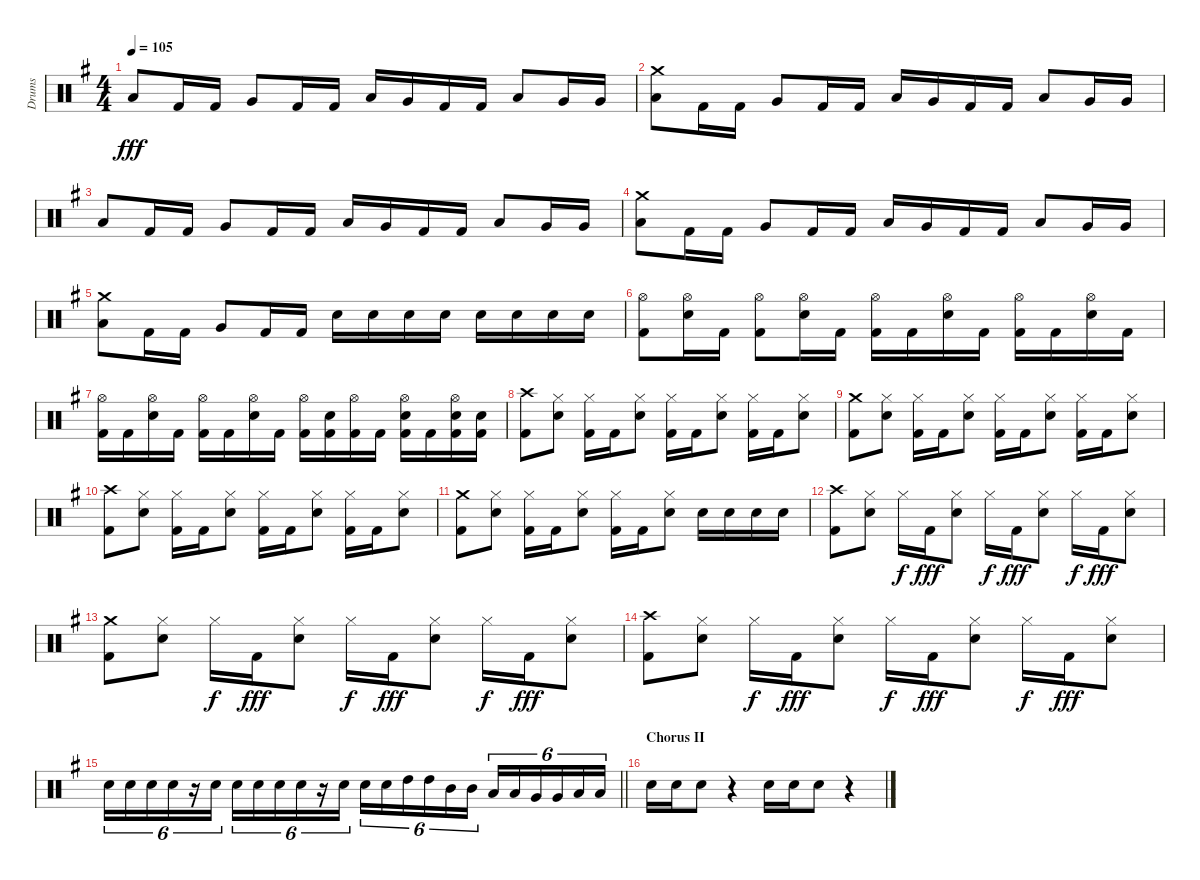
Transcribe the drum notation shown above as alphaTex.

\track ("Drums" "Drums") {instrument percussion}
\staff {score}
\articulation defaults
\ts (4 4)
\tempo 105
\clef neutral
\ks eminor "Low Tom (hit)".8{dy fff} "Kick (hit) 2".16 "Kick (hit) 2".16 "Very Low Tom (hit)".8 "Kick (hit) 2".16 "Kick (hit) 2".16 "Low Tom (hit)".16 "Very Low Tom (hit)".16 "Kick (hit) 2".16 "Kick (hit) 2".16 "Low Tom (hit)".8 "Very Low Tom (hit)".16 "Very Low Tom (hit)".16
|
("Crash medium (hit)" "Low Tom (hit)").8 "Kick (hit) 2".16 "Kick (hit) 2".16 "Very Low Tom (hit)".8 "Kick (hit) 2".16 "Kick (hit) 2".16 "Low Tom (hit)".16 "Very Low Tom (hit)".16 "Kick (hit) 2".16 "Kick (hit) 2".16 "Low Tom (hit)".8 "Very Low Tom (hit)".16 "Very Low Tom (hit)".16 |
"Low Tom (hit)".8 "Kick (hit) 2".16 "Kick (hit) 2".16 "Very Low Tom (hit)".8 "Kick (hit) 2".16 "Kick (hit) 2".16 "Low Tom (hit)".16 "Very Low Tom (hit)".16 "Kick (hit) 2".16 "Kick (hit) 2".16 "Low Tom (hit)".8 "Very Low Tom (hit)".16 "Very Low Tom (hit)".16 |
("Crash medium (hit)" "Low Tom (hit)").8 "Kick (hit) 2".16 "Kick (hit) 2".16 "Very Low Tom (hit)".8 "Kick (hit) 2".16 "Kick (hit) 2".16 "Low Tom (hit)".16 "Very Low Tom (hit)".16 "Kick (hit) 2".16 "Kick (hit) 2".16 "Low Tom (hit)".8 "Very Low Tom (hit)".16 "Very Low Tom (hit)".16 |
("Crash medium (hit)" "Low Tom (hit)").8 "Kick (hit) 2".16 "Kick (hit) 2".16 "Very Low Tom (hit)".8 "Kick (hit) 2".16 "Kick (hit) 2".16 "Snare (hit) 2".16 "Snare (hit) 2".16 "Snare (hit) 2".16 "Snare (hit) 2".16 "Snare (hit) 2".16 "Snare (hit) 2".16 "Snare (hit) 2".16 "Snare (hit) 2".16 |
("Hi-Hat (open)" "Kick (hit) 2").8 ("Hi-Hat (open)" "Snare (hit) 2").16 "Kick (hit) 2".16 ("Hi-Hat (open)" "Kick (hit) 2").8 ("Hi-Hat (open)" "Snare (hit) 2").16 "Kick (hit) 2".16 ("Hi-Hat (open)" "Kick (hit) 2").16 "Kick (hit) 2".16 ("Hi-Hat (open)" "Snare (hit) 2").16 "Kick (hit) 2".16 ("Hi-Hat (open)" "Kick (hit) 2").16 "Kick (hit) 2".16 ("Hi-Hat (open)" "Snare (hit) 2").16 "Kick (hit) 2".16 |
("Hi-Hat (open)" "Kick (hit) 2").16 "Kick (hit) 2".16 ("Hi-Hat (open)" "Snare (hit) 2").16 "Kick (hit) 2".16 ("Hi-Hat (open)" "Kick (hit) 2").16 "Kick (hit) 2".16 ("Hi-Hat (open)" "Snare (hit) 2").16 "Kick (hit) 2".16 ("Hi-Hat (open)" "Kick (hit) 2").16 ("Snare (hit) 2" "Kick (hit) 2").16 ("Hi-Hat (open)" "Kick (hit) 2").16 "Kick (hit) 2".16 ("Hi-Hat (open)" "Snare (hit) 2" "Kick (hit) 2").16 "Kick (hit) 2".16 ("Hi-Hat (open)" "Snare (hit) 2" "Kick (hit) 2").16 ("Snare (hit) 2" "Kick (hit) 2").16 |
("Crash high (hit)" "Kick (hit) 2").8 ("Hi-Hat (closed)" "Snare (hit) 2").8 ("Hi-Hat (closed)" "Kick (hit) 2").16 "Kick (hit) 2".16 ("Hi-Hat (closed)" "Snare (hit) 2").8 ("Hi-Hat (closed)" "Kick (hit) 2").16 "Kick (hit) 2".16 ("Hi-Hat (closed)" "Snare (hit) 2").8 ("Hi-Hat (closed)" "Kick (hit) 2").16 "Kick (hit) 2".16 ("Hi-Hat (closed)" "Snare (hit) 2").8 |
("Crash medium (hit)" "Kick (hit) 2").8 ("Hi-Hat (closed)" "Snare (hit) 2").8 ("Hi-Hat (closed)" "Kick (hit) 2").16 "Kick (hit) 2".16 ("Hi-Hat (closed)" "Snare (hit) 2").8 ("Hi-Hat (closed)" "Kick (hit) 2").16 "Kick (hit) 2".16 ("Hi-Hat (closed)" "Snare (hit) 2").8 ("Hi-Hat (closed)" "Kick (hit) 2").16 "Kick (hit) 2".16 ("Hi-Hat (closed)" "Snare (hit) 2").8 |
("Crash high (hit)" "Kick (hit) 2").8 ("Hi-Hat (closed)" "Snare (hit) 2").8 ("Hi-Hat (closed)" "Kick (hit) 2").16 "Kick (hit) 2".16 ("Hi-Hat (closed)" "Snare (hit) 2").8 ("Hi-Hat (closed)" "Kick (hit) 2").16 "Kick (hit) 2".16 ("Hi-Hat (closed)" "Snare (hit) 2").8 ("Hi-Hat (closed)" "Kick (hit) 2").16 "Kick (hit) 2".16 ("Hi-Hat (closed)" "Snare (hit) 2").8 |
("Crash medium (hit)" "Kick (hit) 2").8 ("Hi-Hat (closed)" "Snare (hit) 2").8 ("Hi-Hat (closed)" "Kick (hit) 2").16 "Kick (hit) 2".16 ("Hi-Hat (closed)" "Snare (hit) 2").8 ("Hi-Hat (closed)" "Kick (hit) 2").16 "Kick (hit) 2".16 ("Hi-Hat (closed)" "Snare (hit) 2").8 "Snare (hit) 2".16 "Snare (hit) 2".16 "Snare (hit) 2".16 "Snare (hit) 2".16 |
("Crash high (hit)" "Kick (hit) 2").8 ("Hi-Hat (closed)" "Snare (hit) 2").8 "Hi-Hat (closed)".16{dy f} "Kick (hit) 2".16{dy fff} ("Hi-Hat (closed)" "Snare (hit) 2").8 "Hi-Hat (closed)".16{dy f} "Kick (hit) 2".16{dy fff} ("Hi-Hat (closed)" "Snare (hit) 2").8 "Hi-Hat (closed)".16{dy f} "Kick (hit) 2".16{dy fff} ("Hi-Hat (closed)" "Snare (hit) 2").8 |
("Crash medium (hit)" "Kick (hit) 2").8 ("Hi-Hat (closed)" "Snare (hit) 2").8 "Hi-Hat (closed)".16{dy f} "Kick (hit) 2".16{dy fff} ("Hi-Hat (closed)" "Snare (hit) 2").8 "Hi-Hat (closed)".16{dy f} "Kick (hit) 2".16{dy fff} ("Hi-Hat (closed)" "Snare (hit) 2").8 "Hi-Hat (closed)".16{dy f} "Kick (hit) 2".16{dy fff} ("Hi-Hat (closed)" "Snare (hit) 2").8 |
("Crash high (hit)" "Kick (hit) 2").8 ("Hi-Hat (closed)" "Snare (hit) 2").8 "Hi-Hat (closed)".16{dy f} "Kick (hit) 2".16{dy fff} ("Hi-Hat (closed)" "Snare (hit) 2").8 "Hi-Hat (closed)".16{dy f} "Kick (hit) 2".16{dy fff} ("Hi-Hat (closed)" "Snare (hit) 2").8 "Hi-Hat (closed)".16{dy f} "Kick (hit) 2".16{dy fff} ("Hi-Hat (closed)" "Snare (hit) 2").8 |
\barLineRight lightlight "Snare (hit) 2".16{tu (6 4)} "Snare (hit) 2".16{tu (6 4)} "Snare (hit) 2".16{tu (6 4)} "Snare (hit) 2".16{tu (6 4)}
r.16{tu (6 4)} "Snare (hit) 2".16{tu (6 4)} "Snare (hit) 2".16{tu (6 4)} "Snare (hit) 2".16{tu (6 4)} "Snare (hit) 2".16{tu (6 4)} "Snare (hit) 2".16{tu (6 4)} r.16{tu (6 4)} "Snare (hit) 2".16{tu (6 4)} "Snare (hit) 2".16{tu (6 4)} "Snare (hit) 2".16{tu (6 4)} "High Tom (hit)".16{tu (6 4)} "High Tom (hit)".16{tu (6 4)} "Mid Tom (hit)".16{tu (6 4)} "Mid Tom (hit)".16{tu (6 4)} "Low Tom (hit)".16{tu (6 4)} "Low Tom (hit)".16{tu (6 4)} "Very Low Tom (hit)".16{tu (6 4)} "Very Low Tom (hit)".16{tu (6 4)} "Low Floor Tom (hit)".16{tu (6 4)} "Low Floor Tom (hit)".16{tu (6 4)} |
\section ("" "Chorus II")
"Snare (hit) 2".16 "Snare (hit) 2".16 "Snare (hit) 2".8 r.4 "Snare (hit) 2".16 "Snare (hit) 2".16 "Snare (hit) 2".8 r.4
